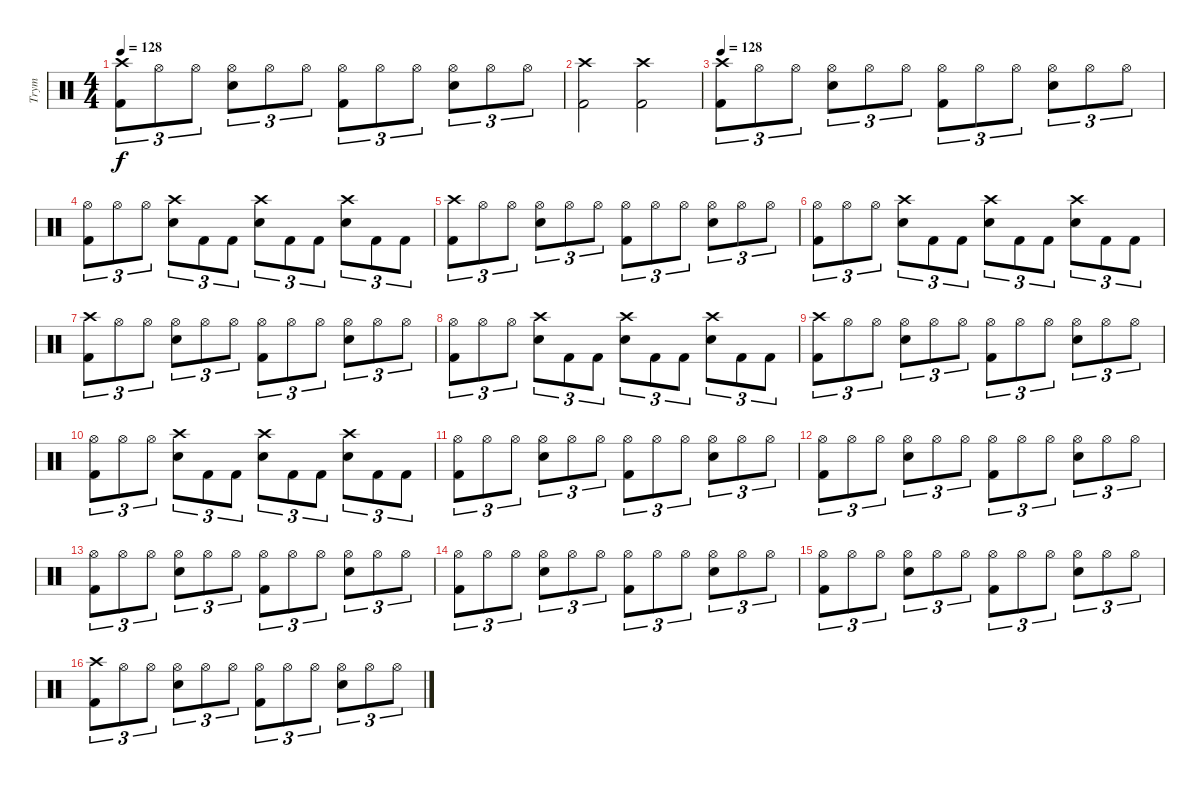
\track ("Trym" "Trym") {instrument percussion}
\staff {score}
\articulation defaults
\ts (4 4)
\tempo 128
\clef neutral
\ks c
("Crash high (hit)" "Kick (hit) 2").8{tu (3 2) dy f} "Hi-Hat (open)".8{tu (3 2)} "Hi-Hat (open)".8{tu (3 2)} ("Hi-Hat (open)" "Electric Snare (hit)").8{tu (3 2)} "Hi-Hat (open)".8{tu (3 2)} "Hi-Hat (open)".8{tu (3 2)} ("Hi-Hat (open)" "Kick (hit) 2").8{tu (3 2)} "Hi-Hat (open)".8{tu (3 2)} "Hi-Hat (open)".8{tu (3 2)} ("Hi-Hat (open)" "Electric Snare (hit)").8{tu (3 2)} "Hi-Hat (open)".8{tu (3 2)} "Hi-Hat (open)".8{tu (3 2)} |
("Crash high (hit)" "Kick (hit) 2").2 ("Crash high (hit)" "Kick (hit) 2").2 |
\tempo 128
("Crash high (hit)" "Kick (hit) 2").8{tu (3 2)} "Hi-Hat (open)".8{tu (3 2)} "Hi-Hat (open)".8{tu (3 2)} ("Hi-Hat (open)" "Electric Snare (hit)").8{tu (3 2)} "Hi-Hat (open)".8{tu (3 2)} "Hi-Hat (open)".8{tu (3 2)} ("Hi-Hat (open)" "Kick (hit) 2").8{tu (3 2)} "Hi-Hat (open)".8{tu (3 2)} "Hi-Hat (open)".8{tu (3 2)} ("Hi-Hat (open)" "Electric Snare (hit)").8{tu (3 2)} "Hi-Hat (open)".8{tu (3 2)} "Hi-Hat (open)".8{tu (3 2)} |
("Hi-Hat (open)" "Kick (hit) 2").8{tu (3 2)} "Hi-Hat (open)".8{tu (3 2)} "Hi-Hat (open)".8{tu (3 2)} ("Crash high (hit)" "Electric Snare (hit)").8{tu (3 2)} "Kick (hit) 2".8{tu (3 2)} "Kick (hit) 2".8{tu (3 2)} ("Crash high (hit)" "Electric Snare (hit)").8{tu (3 2)} "Kick (hit) 2".8{tu (3 2)} "Kick (hit) 2".8{tu (3 2)} ("Crash high (hit)" "Electric Snare (hit)").8{tu (3 2)} "Kick (hit) 2".8{tu (3 2)} "Kick (hit) 2".8{tu (3 2)} |
("Crash high (hit)" "Kick (hit) 2").8{tu (3 2)} "Hi-Hat (open)".8{tu (3 2)} "Hi-Hat (open)".8{tu (3 2)} ("Hi-Hat (open)" "Electric Snare (hit)").8{tu (3 2)} "Hi-Hat (open)".8{tu (3 2)} "Hi-Hat (open)".8{tu (3 2)} ("Hi-Hat (open)" "Kick (hit) 2").8{tu (3 2)} "Hi-Hat (open)".8{tu (3 2)} "Hi-Hat (open)".8{tu (3 2)} ("Hi-Hat (open)" "Electric Snare (hit)").8{tu (3 2)} "Hi-Hat (open)".8{tu (3 2)} "Hi-Hat (open)".8{tu (3 2)} |
("Hi-Hat (open)" "Kick (hit) 2").8{tu (3 2)} "Hi-Hat (open)".8{tu (3 2)} "Hi-Hat (open)".8{tu (3 2)} ("Crash high (hit)" "Electric Snare (hit)").8{tu (3 2)} "Kick (hit) 2".8{tu (3 2)} "Kick (hit) 2".8{tu (3 2)} ("Crash high (hit)" "Electric Snare (hit)").8{tu (3 2)} "Kick (hit) 2".8{tu (3 2)} "Kick (hit) 2".8{tu (3 2)} ("Crash high (hit)" "Electric Snare (hit)").8{tu (3 2)} "Kick (hit) 2".8{tu (3 2)} "Kick (hit) 2".8{tu (3 2)} |
("Crash high (hit)" "Kick (hit) 2").8{tu (3 2)} "Hi-Hat (open)".8{tu (3 2)} "Hi-Hat (open)".8{tu (3 2)} ("Hi-Hat (open)" "Electric Snare (hit)").8{tu (3 2)} "Hi-Hat (open)".8{tu (3 2)} "Hi-Hat (open)".8{tu (3 2)} ("Hi-Hat (open)" "Kick (hit) 2").8{tu (3 2)} "Hi-Hat (open)".8{tu (3 2)} "Hi-Hat (open)".8{tu (3 2)} ("Hi-Hat (open)" "Electric Snare (hit)").8{tu (3 2)} "Hi-Hat (open)".8{tu (3 2)} "Hi-Hat (open)".8{tu (3 2)} |
("Hi-Hat (open)" "Kick (hit) 2").8{tu (3 2)} "Hi-Hat (open)".8{tu (3 2)} "Hi-Hat (open)".8{tu (3 2)} ("Crash high (hit)" "Electric Snare (hit)").8{tu (3 2)} "Kick (hit) 2".8{tu (3 2)} "Kick (hit) 2".8{tu (3 2)} ("Crash high (hit)" "Electric Snare (hit)").8{tu (3 2)} "Kick (hit) 2".8{tu (3 2)} "Kick (hit) 2".8{tu (3 2)} ("Crash high (hit)" "Electric Snare (hit)").8{tu (3 2)} "Kick (hit) 2".8{tu (3 2)} "Kick (hit) 2".8{tu (3 2)} |
("Crash high (hit)" "Kick (hit) 2").8{tu (3 2)} "Hi-Hat (open)".8{tu (3 2)} "Hi-Hat (open)".8{tu (3 2)} ("Hi-Hat (open)" "Electric Snare (hit)").8{tu (3 2)} "Hi-Hat (open)".8{tu (3 2)} "Hi-Hat (open)".8{tu (3 2)} ("Hi-Hat (open)" "Kick (hit) 2").8{tu (3 2)} "Hi-Hat (open)".8{tu (3 2)} "Hi-Hat (open)".8{tu (3 2)} ("Hi-Hat (open)" "Electric Snare (hit)").8{tu (3 2)} "Hi-Hat (open)".8{tu (3 2)} "Hi-Hat (open)".8{tu (3 2)} |
("Hi-Hat (open)" "Kick (hit) 2").8{tu (3 2)} "Hi-Hat (open)".8{tu (3 2)} "Hi-Hat (open)".8{tu (3 2)} ("Crash high (hit)" "Electric Snare (hit)").8{tu (3 2)} "Kick (hit) 2".8{tu (3 2)} "Kick (hit) 2".8{tu (3 2)} ("Crash high (hit)" "Electric Snare (hit)").8{tu (3 2)} "Kick (hit) 2".8{tu (3 2)} "Kick (hit) 2".8{tu (3 2)} ("Crash high (hit)" "Electric Snare (hit)").8{tu (3 2)} "Kick (hit) 2".8{tu (3 2)} "Kick (hit) 2".8{tu (3 2)} |
("Hi-Hat (open)" "Kick (hit) 2").8{tu (3 2)} "Hi-Hat (open)".8{tu (3 2)} "Hi-Hat (open)".8{tu (3 2)} ("Hi-Hat (open)" "Electric Snare (hit)").8{tu (3 2)} "Hi-Hat (open)".8{tu (3 2)} "Hi-Hat (open)".8{tu (3 2)} ("Hi-Hat (open)" "Kick (hit) 2").8{tu (3 2)} "Hi-Hat (open)".8{tu (3 2)} "Hi-Hat (open)".8{tu (3 2)} ("Hi-Hat (open)" "Electric Snare (hit)").8{tu (3 2)} "Hi-Hat (open)".8{tu (3 2)} "Hi-Hat (open)".8{tu (3 2)} |
("Hi-Hat (open)" "Kick (hit) 2").8{tu (3 2)} "Hi-Hat (open)".8{tu (3 2)} "Hi-Hat (open)".8{tu (3 2)} ("Hi-Hat (open)" "Electric Snare (hit)").8{tu (3 2)} "Hi-Hat (open)".8{tu (3 2)} "Hi-Hat (open)".8{tu (3 2)} ("Hi-Hat (open)" "Kick (hit) 2").8{tu (3 2)} "Hi-Hat (open)".8{tu (3 2)} "Hi-Hat (open)".8{tu (3 2)} ("Hi-Hat (open)" "Electric Snare (hit)").8{tu (3 2)} "Hi-Hat (open)".8{tu (3 2)} "Hi-Hat (open)".8{tu (3 2)} |
("Hi-Hat (open)" "Kick (hit) 2").8{tu (3 2)} "Hi-Hat (open)".8{tu (3 2)} "Hi-Hat (open)".8{tu (3 2)} ("Hi-Hat (open)" "Electric Snare (hit)").8{tu (3 2)} "Hi-Hat (open)".8{tu (3 2)} "Hi-Hat (open)".8{tu (3 2)} ("Hi-Hat (open)" "Kick (hit) 2").8{tu (3 2)} "Hi-Hat (open)".8{tu (3 2)} "Hi-Hat (open)".8{tu (3 2)} ("Hi-Hat (open)" "Electric Snare (hit)").8{tu (3 2)} "Hi-Hat (open)".8{tu (3 2)} "Hi-Hat (open)".8{tu (3 2)} |
("Hi-Hat (open)" "Kick (hit) 2").8{tu (3 2)} "Hi-Hat (open)".8{tu (3 2)} "Hi-Hat (open)".8{tu (3 2)} ("Hi-Hat (open)" "Electric Snare (hit)").8{tu (3 2)} "Hi-Hat (open)".8{tu (3 2)} "Hi-Hat (open)".8{tu (3 2)} ("Hi-Hat (open)" "Kick (hit) 2").8{tu (3 2)} "Hi-Hat (open)".8{tu (3 2)} "Hi-Hat (open)".8{tu (3 2)} ("Hi-Hat (open)" "Electric Snare (hit)").8{tu (3 2)} "Hi-Hat (open)".8{tu (3 2)} "Hi-Hat (open)".8{tu (3 2)} |
("Hi-Hat (open)" "Kick (hit) 2").8{tu (3 2)} "Hi-Hat (open)".8{tu (3 2)} "Hi-Hat (open)".8{tu (3 2)} ("Hi-Hat (open)" "Electric Snare (hit)").8{tu (3 2)} "Hi-Hat (open)".8{tu (3 2)} "Hi-Hat (open)".8{tu (3 2)} ("Hi-Hat (open)" "Kick (hit) 2").8{tu (3 2)} "Hi-Hat (open)".8{tu (3 2)} "Hi-Hat (open)".8{tu (3 2)} ("Hi-Hat (open)" "Electric Snare (hit)").8{tu (3 2)} "Hi-Hat (open)".8{tu (3 2)} "Hi-Hat (open)".8{tu (3 2)} |
("Crash high (hit)" "Kick (hit) 2").8{tu (3 2)} "Hi-Hat (open)".8{tu (3 2)} "Hi-Hat (open)".8{tu (3 2)} ("Hi-Hat (open)" "Electric Snare (hit)").8{tu (3 2)} "Hi-Hat (open)".8{tu (3 2)} "Hi-Hat (open)".8{tu (3 2)} ("Hi-Hat (open)" "Kick (hit) 2").8{tu (3 2)} "Hi-Hat (open)".8{tu (3 2)} "Hi-Hat (open)".8{tu (3 2)} ("Hi-Hat (open)" "Electric Snare (hit)").8{tu (3 2)} "Hi-Hat (open)".8{tu (3 2)} "Hi-Hat (open)".8{tu (3 2)}
